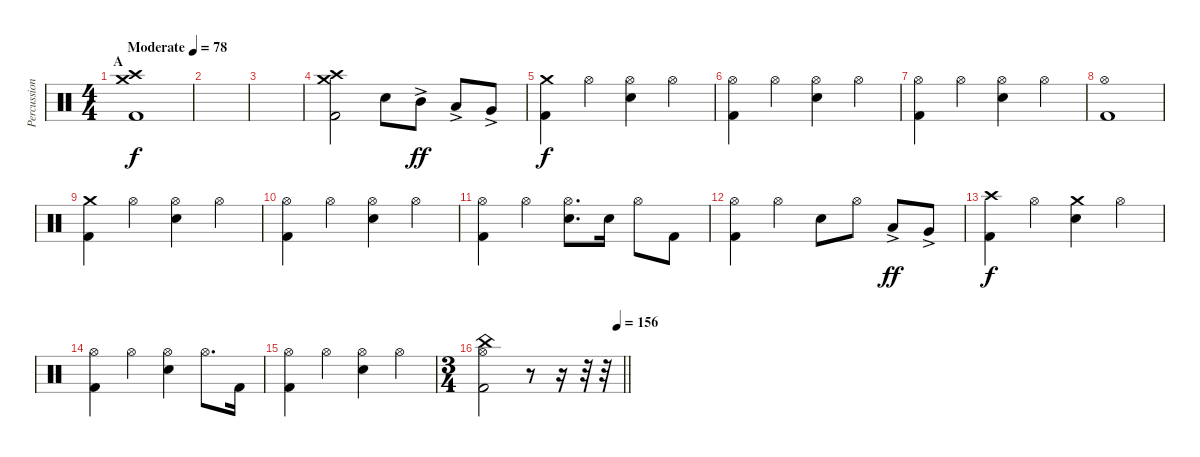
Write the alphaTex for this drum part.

\track ("Percussion" "Percussion") {instrument percussion}
\staff {score}
\articulation defaults
\ts (4 4)
\section ("" "A")
\tempo (78 "Moderate")
\clef neutral
\ks c
("Crash high (hit)" "Crash medium (hit)" "Kick (hit) 2").1{dy f} |
|
|
("Crash high (hit)" "Crash medium (hit)" "Kick (hit) 2").2 "Electric Snare (hit)".8 "Mid Tom (hit)"{ac}.8{dy ff} "Low Tom (hit)"{ac}.8 "Very Low Tom (hit)"{ac}.8 |
("Crash medium (hit)" "Kick (hit) 2").4{dy f} "Hi-Hat (open)".4 ("Hi-Hat (open)" "Electric Snare (hit)").4 "Hi-Hat (open)".4 |
("Hi-Hat (open)" "Kick (hit) 2").4 "Hi-Hat (open)".4 ("Hi-Hat (open)" "Electric Snare (hit)").4 "Hi-Hat (open)".4 |
("Hi-Hat (open)" "Kick (hit) 2").4 "Hi-Hat (open)".4 ("Hi-Hat (open)" "Electric Snare (hit)").4 "Hi-Hat (open)".4 |
("Hi-Hat (open)" "Kick (hit) 2").1 |
("Crash medium (hit)" "Kick (hit) 2").4 "Hi-Hat (open)".4 ("Hi-Hat (open)" "Electric Snare (hit)").4 "Hi-Hat (open)".4 |
("Hi-Hat (open)" "Kick (hit) 2").4 "Hi-Hat (open)".4 ("Hi-Hat (open)" "Electric Snare (hit)").4 "Hi-Hat (open)".4 |
("Hi-Hat (open)" "Kick (hit) 2").4 "Hi-Hat (open)".4 ("Hi-Hat (open)" "Electric Snare (hit)").8{d} "Electric Snare (hit)".16 "Hi-Hat (open)".8 "Kick (hit) 2".8 |
("Hi-Hat (open)" "Kick (hit) 2").4 "Hi-Hat (open)".4 "Electric Snare (hit)".8 "Hi-Hat (open)".8 "Low Tom (hit)"{ac}.8{dy ff} "Very Low Tom (hit)"{ac}.8 |
("Crash high (hit)" "Kick (hit) 2").4{dy f} "Hi-Hat (open)".4 ("Crash medium (hit)" "Electric Snare (hit)").4 "Hi-Hat (open)".4 |
("Hi-Hat (open)" "Kick (hit) 2").4 "Hi-Hat (open)".4 ("Hi-Hat (open)" "Electric Snare (hit)").4 "Hi-Hat (open)".8{d} "Kick (hit) 2".16 |
("Hi-Hat (open)" "Kick (hit) 2").4 "Hi-Hat (open)".4 ("Hi-Hat (open)" "Electric Snare (hit)").4 "Hi-Hat (open)".4 |
\ts (3 4)
\tempo (156 0.9583333333333334)
\barLineRight lightlight
("China (hit)" "Hi-Hat (open)" "Kick (hit) 2").2 r.8 r.16 r.32 r.32
